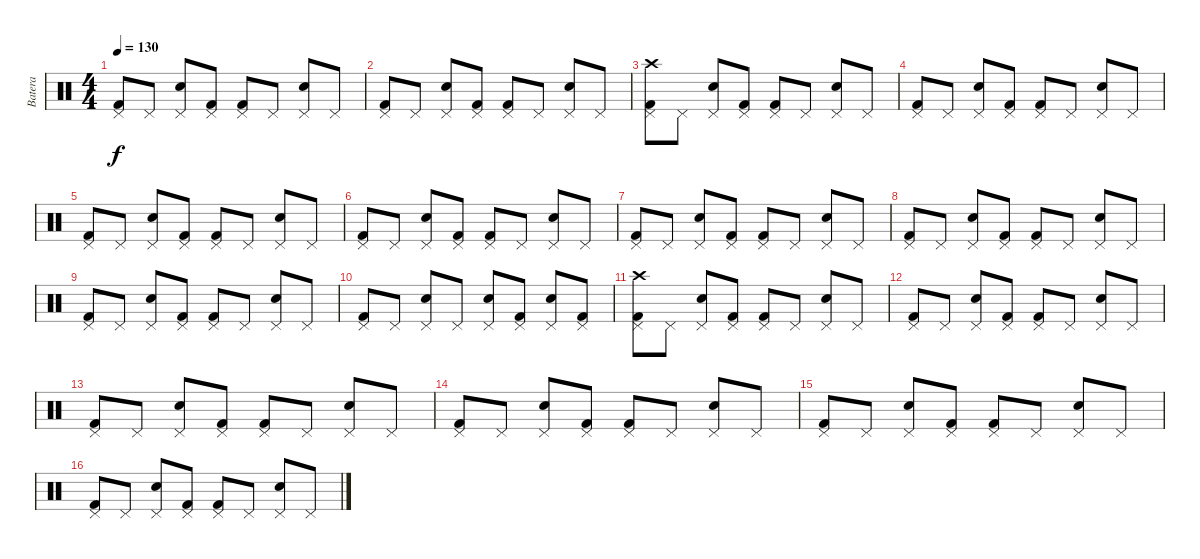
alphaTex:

\track ("Batera" "Batera") {instrument percussion}
\staff {score}
\articulation defaults
\ts (4 4)
\tempo 130
\clef neutral
\ks c
("Pedal Hi-Hat (hit)" "Kick (hit) 2").8{dy f} "Pedal Hi-Hat (hit)".8 ("Pedal Hi-Hat (hit)" "Snare (hit) 2").8 ("Pedal Hi-Hat (hit)" "Kick (hit) 2").8 ("Pedal Hi-Hat (hit)" "Kick (hit) 2").8 "Pedal Hi-Hat (hit)".8 ("Pedal Hi-Hat (hit)" "Snare (hit) 2").8 "Pedal Hi-Hat (hit)".8 |
("Pedal Hi-Hat (hit)" "Kick (hit) 2").8 "Pedal Hi-Hat (hit)".8 ("Pedal Hi-Hat (hit)" "Snare (hit) 2").8 ("Pedal Hi-Hat (hit)" "Kick (hit) 2").8 ("Pedal Hi-Hat (hit)" "Kick (hit) 2").8 "Pedal Hi-Hat (hit)".8 ("Pedal Hi-Hat (hit)" "Snare (hit) 2").8 "Pedal Hi-Hat (hit)".8 |
("Pedal Hi-Hat (hit)" "Crash high (hit)" "Kick (hit) 2").8 "Pedal Hi-Hat (hit)".8 ("Pedal Hi-Hat (hit)" "Snare (hit) 2").8 ("Pedal Hi-Hat (hit)" "Kick (hit) 2").8 ("Pedal Hi-Hat (hit)" "Kick (hit) 2").8 "Pedal Hi-Hat (hit)".8 ("Pedal Hi-Hat (hit)" "Snare (hit) 2").8 "Pedal Hi-Hat (hit)".8 |
("Pedal Hi-Hat (hit)" "Kick (hit) 2").8 "Pedal Hi-Hat (hit)".8 ("Pedal Hi-Hat (hit)" "Snare (hit) 2").8 ("Pedal Hi-Hat (hit)" "Kick (hit) 2").8 ("Pedal Hi-Hat (hit)" "Kick (hit) 2").8 "Pedal Hi-Hat (hit)".8 ("Pedal Hi-Hat (hit)" "Snare (hit) 2").8 "Pedal Hi-Hat (hit)".8 |
("Pedal Hi-Hat (hit)" "Kick (hit) 2").8 "Pedal Hi-Hat (hit)".8 ("Pedal Hi-Hat (hit)" "Snare (hit) 2").8 ("Pedal Hi-Hat (hit)" "Kick (hit) 2").8 ("Pedal Hi-Hat (hit)" "Kick (hit) 2").8 "Pedal Hi-Hat (hit)".8 ("Pedal Hi-Hat (hit)" "Snare (hit) 2").8 "Pedal Hi-Hat (hit)".8 |
("Pedal Hi-Hat (hit)" "Kick (hit) 2").8 "Pedal Hi-Hat (hit)".8 ("Pedal Hi-Hat (hit)" "Snare (hit) 2").8 ("Pedal Hi-Hat (hit)" "Kick (hit) 2").8 ("Pedal Hi-Hat (hit)" "Kick (hit) 2").8 "Pedal Hi-Hat (hit)".8 ("Pedal Hi-Hat (hit)" "Snare (hit) 2").8 "Pedal Hi-Hat (hit)".8 |
("Pedal Hi-Hat (hit)" "Kick (hit) 2").8 "Pedal Hi-Hat (hit)".8 ("Pedal Hi-Hat (hit)" "Snare (hit) 2").8 ("Pedal Hi-Hat (hit)" "Kick (hit) 2").8 ("Pedal Hi-Hat (hit)" "Kick (hit) 2").8 "Pedal Hi-Hat (hit)".8 ("Pedal Hi-Hat (hit)" "Snare (hit) 2").8 "Pedal Hi-Hat (hit)".8 |
("Pedal Hi-Hat (hit)" "Kick (hit) 2").8 "Pedal Hi-Hat (hit)".8 ("Pedal Hi-Hat (hit)" "Snare (hit) 2").8 ("Pedal Hi-Hat (hit)" "Kick (hit) 2").8 ("Pedal Hi-Hat (hit)" "Kick (hit) 2").8 "Pedal Hi-Hat (hit)".8 ("Pedal Hi-Hat (hit)" "Snare (hit) 2").8 "Pedal Hi-Hat (hit)".8 |
("Pedal Hi-Hat (hit)" "Kick (hit) 2").8 "Pedal Hi-Hat (hit)".8 ("Pedal Hi-Hat (hit)" "Snare (hit) 2").8 ("Pedal Hi-Hat (hit)" "Kick (hit) 2").8 ("Pedal Hi-Hat (hit)" "Kick (hit) 2").8 "Pedal Hi-Hat (hit)".8 ("Pedal Hi-Hat (hit)" "Snare (hit) 2").8 "Pedal Hi-Hat (hit)".8 |
("Pedal Hi-Hat (hit)" "Kick (hit) 2").8 "Pedal Hi-Hat (hit)".8 ("Pedal Hi-Hat (hit)" "Snare (hit) 2").8 "Pedal Hi-Hat (hit)".8 ("Pedal Hi-Hat (hit)" "Snare (hit) 2").8 ("Pedal Hi-Hat (hit)" "Kick (hit) 2").8 ("Pedal Hi-Hat (hit)" "Snare (hit) 2").8 ("Pedal Hi-Hat (hit)" "Kick (hit) 2").8 |
("Pedal Hi-Hat (hit)" "Crash high (hit)" "Kick (hit) 2").8 "Pedal Hi-Hat (hit)".8 ("Pedal Hi-Hat (hit)" "Snare (hit) 2").8 ("Pedal Hi-Hat (hit)" "Kick (hit) 2").8 ("Pedal Hi-Hat (hit)" "Kick (hit) 2").8 "Pedal Hi-Hat (hit)".8 ("Pedal Hi-Hat (hit)" "Snare (hit) 2").8 "Pedal Hi-Hat (hit)".8 |
("Pedal Hi-Hat (hit)" "Kick (hit) 2").8 "Pedal Hi-Hat (hit)".8 ("Pedal Hi-Hat (hit)" "Snare (hit) 2").8 ("Pedal Hi-Hat (hit)" "Kick (hit) 2").8 ("Pedal Hi-Hat (hit)" "Kick (hit) 2").8 "Pedal Hi-Hat (hit)".8 ("Pedal Hi-Hat (hit)" "Snare (hit) 2").8 "Pedal Hi-Hat (hit)".8 |
("Pedal Hi-Hat (hit)" "Kick (hit) 2").8 "Pedal Hi-Hat (hit)".8 ("Pedal Hi-Hat (hit)" "Snare (hit) 2").8 ("Pedal Hi-Hat (hit)" "Kick (hit) 2").8 ("Pedal Hi-Hat (hit)" "Kick (hit) 2").8 "Pedal Hi-Hat (hit)".8 ("Pedal Hi-Hat (hit)" "Snare (hit) 2").8 "Pedal Hi-Hat (hit)".8 |
("Pedal Hi-Hat (hit)" "Kick (hit) 2").8 "Pedal Hi-Hat (hit)".8 ("Pedal Hi-Hat (hit)" "Snare (hit) 2").8 ("Pedal Hi-Hat (hit)" "Kick (hit) 2").8 ("Pedal Hi-Hat (hit)" "Kick (hit) 2").8 "Pedal Hi-Hat (hit)".8 ("Pedal Hi-Hat (hit)" "Snare (hit) 2").8 "Pedal Hi-Hat (hit)".8 |
("Pedal Hi-Hat (hit)" "Kick (hit) 2").8 "Pedal Hi-Hat (hit)".8 ("Pedal Hi-Hat (hit)" "Snare (hit) 2").8 ("Pedal Hi-Hat (hit)" "Kick (hit) 2").8 ("Pedal Hi-Hat (hit)" "Kick (hit) 2").8 "Pedal Hi-Hat (hit)".8 ("Pedal Hi-Hat (hit)" "Snare (hit) 2").8 "Pedal Hi-Hat (hit)".8 |
("Pedal Hi-Hat (hit)" "Kick (hit) 2").8 "Pedal Hi-Hat (hit)".8 ("Pedal Hi-Hat (hit)" "Snare (hit) 2").8 ("Pedal Hi-Hat (hit)" "Kick (hit) 2").8 ("Pedal Hi-Hat (hit)" "Kick (hit) 2").8 "Pedal Hi-Hat (hit)".8 ("Pedal Hi-Hat (hit)" "Snare (hit) 2").8 "Pedal Hi-Hat (hit)".8
